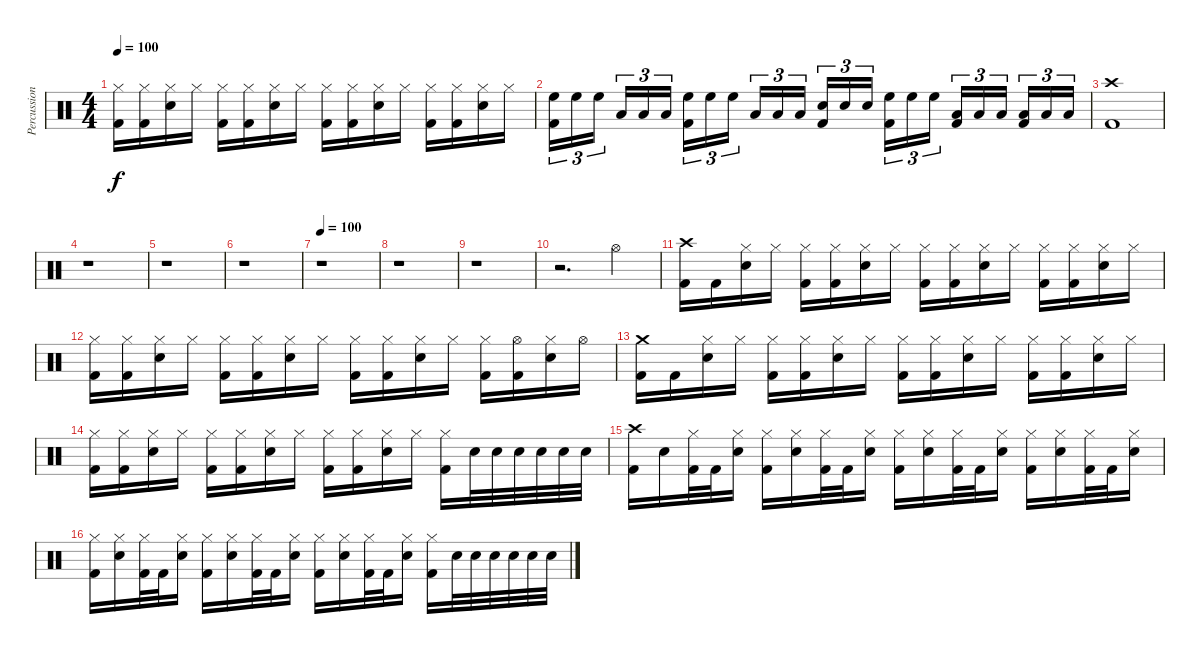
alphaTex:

\track ("Percussion" "Percussion") {instrument percussion}
\staff {score}
\articulation defaults
\ts (4 4)
\tempo 100
\clef neutral
\ks c
("Hi-Hat (closed)" "Kick (hit) 2").16{dy f} ("Hi-Hat (closed)" "Kick (hit) 2").16 ("Hi-Hat (closed)" "Snare (hit) 2").16 "Hi-Hat (closed)".16 ("Hi-Hat (closed)" "Kick (hit) 2").16 ("Hi-Hat (closed)" "Kick (hit) 2").16 ("Hi-Hat (closed)" "Snare (hit) 2").16 "Hi-Hat (closed)".16 ("Hi-Hat (closed)" "Kick (hit) 2").16 ("Hi-Hat (closed)" "Kick (hit) 2").16 ("Hi-Hat (closed)" "Snare (hit) 2").16 "Hi-Hat (closed)".16 ("Hi-Hat (closed)" "Kick (hit) 2").16 ("Hi-Hat (closed)" "Kick (hit) 2").16 ("Hi-Hat (closed)" "Snare (hit) 2").16 "Hi-Hat (closed)".16 |
("High Floor Tom (hit)" "Kick (hit) 2").16{tu (3 2)} "High Floor Tom (hit)".16{tu (3 2)} "High Floor Tom (hit)".16{tu (3 2)} "Low Tom (hit)".16{tu (3 2)} "Low Tom (hit)".16{tu (3 2)} "Low Tom (hit)".16{tu (3 2)} ("High Floor Tom (hit)" "Kick (hit) 2").16{tu (3 2)} "High Floor Tom (hit)".16{tu (3 2)} "High Floor Tom (hit)".16{tu (3 2)} "Low Tom (hit)".16{tu (3 2)} "Low Tom (hit)".16{tu (3 2)} "Low Tom (hit)".16{tu (3 2)} ("Snare (hit) 2" "Kick (hit) 2").16{tu (3 2)} "Snare (hit) 2".16{tu (3 2)} "Snare (hit) 2".16{tu (3 2)} ("High Floor Tom (hit)" "Kick (hit) 2").16{tu (3 2)} "High Floor Tom (hit)".16{tu (3 2)} "High Floor Tom (hit)".16{tu (3 2)} ("Low Tom (hit)" "Kick (hit) 2").16{tu (3 2)} "Low Tom (hit)".16{tu (3 2)} "Low Tom (hit)".16{tu (3 2)} ("Low Floor Tom (hit)" "Kick (hit) 2").16{tu (3 2)} "Low Floor Tom (hit)".16{tu (3 2)} "Low Floor Tom (hit)".16{tu (3 2)} |
("Crash high (hit)" "Kick (hit) 2").1 |
r.1 |
r.1 |
r.1 |
\tempo 100
r.1 |
r.1 |
r.1 |
r.2{d} "Hi-Hat (open)".4 |
("Crash high (hit)" "Kick (hit) 2").16 "Kick (hit) 2".16 ("Hi-Hat (closed)" "Snare (hit) 2").16 "Hi-Hat (closed)".16 ("Hi-Hat (closed)" "Kick (hit) 2").16 ("Hi-Hat (closed)" "Kick (hit) 2").16 ("Hi-Hat (closed)" "Snare (hit) 2").16 "Hi-Hat (closed)".16 ("Hi-Hat (closed)" "Kick (hit) 2").16 ("Hi-Hat (closed)" "Kick (hit) 2").16 ("Hi-Hat (closed)" "Snare (hit) 2").16 "Hi-Hat (closed)".16 ("Hi-Hat (closed)" "Kick (hit) 2").16 ("Hi-Hat (closed)" "Kick (hit) 2").16 ("Hi-Hat (closed)" "Snare (hit) 2").16 "Hi-Hat (closed)".16 |
("Hi-Hat (closed)" "Kick (hit) 2").16 ("Hi-Hat (closed)" "Kick (hit) 2").16 ("Hi-Hat (closed)" "Snare (hit) 2").16 "Hi-Hat (closed)".16 ("Hi-Hat (closed)" "Kick (hit) 2").16 ("Hi-Hat (closed)" "Kick (hit) 2").16 ("Hi-Hat (closed)" "Snare (hit) 2").16 "Hi-Hat (closed)".16 ("Hi-Hat (closed)" "Kick (hit) 2").16 ("Hi-Hat (closed)" "Kick (hit) 2").16 ("Hi-Hat (closed)" "Snare (hit) 2").16 "Hi-Hat (closed)".16 ("Hi-Hat (closed)" "Kick (hit) 2").16 ("Hi-Hat (open)" "Kick (hit) 2").16 ("Hi-Hat (closed)" "Snare (hit) 2").16 "Hi-Hat (open)".16 |
("Crash medium (hit)" "Kick (hit) 2").16 "Kick (hit) 2".16 ("Hi-Hat (closed)" "Snare (hit) 2").16 "Hi-Hat (closed)".16 ("Hi-Hat (closed)" "Kick (hit) 2").16 ("Hi-Hat (closed)" "Kick (hit) 2").16 ("Hi-Hat (closed)" "Snare (hit) 2").16 "Hi-Hat (closed)".16 ("Hi-Hat (closed)" "Kick (hit) 2").16 ("Hi-Hat (closed)" "Kick (hit) 2").16 ("Hi-Hat (closed)" "Snare (hit) 2").16 "Hi-Hat (closed)".16 ("Hi-Hat (closed)" "Kick (hit) 2").16 ("Hi-Hat (closed)" "Kick (hit) 2").16 ("Hi-Hat (closed)" "Snare (hit) 2").16 "Hi-Hat (closed)".16 |
("Hi-Hat (closed)" "Kick (hit) 2").16 ("Hi-Hat (closed)" "Kick (hit) 2").16 ("Hi-Hat (closed)" "Snare (hit) 2").16 "Hi-Hat (closed)".16 ("Hi-Hat (closed)" "Kick (hit) 2").16 ("Hi-Hat (closed)" "Kick (hit) 2").16 ("Hi-Hat (closed)" "Snare (hit) 2").16 "Hi-Hat (closed)".16 ("Hi-Hat (closed)" "Kick (hit) 2").16 ("Hi-Hat (closed)" "Kick (hit) 2").16 ("Hi-Hat (closed)" "Snare (hit) 2").16 "Hi-Hat (closed)".16 ("Hi-Hat (closed)" "Kick (hit) 2").16 "Snare (hit) 2".32 "Snare (hit) 2".32 "Snare (hit) 2".32 "Snare (hit) 2".32 "Snare (hit) 2".32 "Snare (hit) 2".32 |
("Crash high (hit)" "Kick (hit) 2").16 "Snare (hit) 2".16 ("Hi-Hat (closed)" "Kick (hit) 2").32 "Kick (hit) 2".32 ("Hi-Hat (closed)" "Snare (hit) 2").16 ("Hi-Hat (closed)" "Kick (hit) 2").16 ("Hi-Hat (closed)" "Snare (hit) 2").16 ("Hi-Hat (closed)" "Kick (hit) 2").32 "Kick (hit) 2".32 ("Hi-Hat (closed)" "Snare (hit) 2").16 ("Hi-Hat (closed)" "Kick (hit) 2").16 ("Hi-Hat (closed)" "Snare (hit) 2").16 ("Hi-Hat (closed)" "Kick (hit) 2").32 "Kick (hit) 2".32 ("Hi-Hat (closed)" "Snare (hit) 2").16 ("Hi-Hat (closed)" "Kick (hit) 2").16 ("Hi-Hat (closed)" "Snare (hit) 2").16 ("Hi-Hat (closed)" "Kick (hit) 2").32 "Kick (hit) 2".32 ("Hi-Hat (closed)" "Snare (hit) 2").16 |
("Hi-Hat (closed)" "Kick (hit) 2").16 ("Hi-Hat (closed)" "Snare (hit) 2").16 ("Hi-Hat (closed)" "Kick (hit) 2").32 "Kick (hit) 2".32 ("Hi-Hat (closed)" "Snare (hit) 2").16 ("Hi-Hat (closed)" "Kick (hit) 2").16 ("Hi-Hat (closed)" "Snare (hit) 2").16 ("Hi-Hat (closed)" "Kick (hit) 2").32 "Kick (hit) 2".32 ("Hi-Hat (closed)" "Snare (hit) 2").16 ("Hi-Hat (closed)" "Kick (hit) 2").16 ("Hi-Hat (closed)" "Snare (hit) 2").16 ("Hi-Hat (closed)" "Kick (hit) 2").32 "Kick (hit) 2".32 ("Hi-Hat (closed)" "Snare (hit) 2").16 ("Hi-Hat (closed)" "Kick (hit) 2").16 "Snare (hit) 2".32 "Snare (hit) 2".32 "Snare (hit) 2".32 "Snare (hit) 2".32 "Snare (hit) 2".32 "Snare (hit) 2".32
